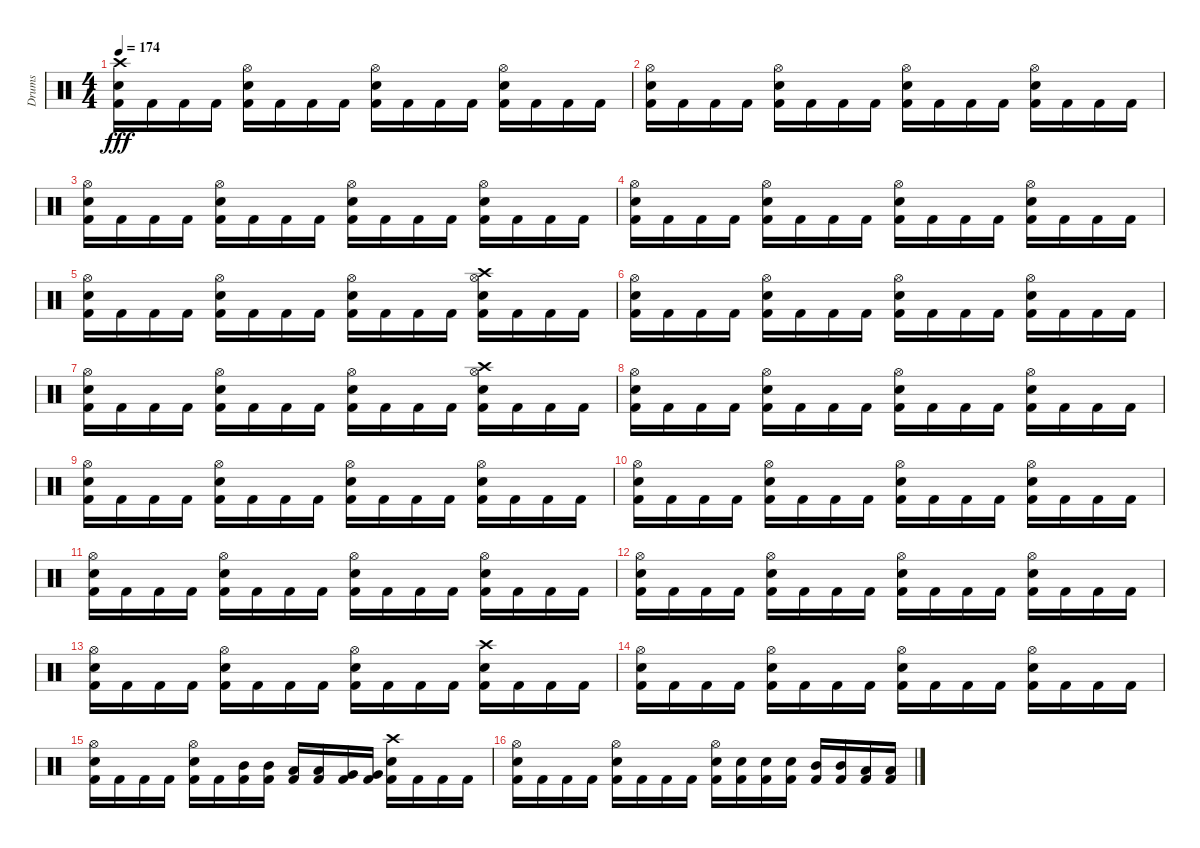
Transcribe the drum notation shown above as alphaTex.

\track ("Drums" "Drums") {instrument percussion}
\staff {score}
\articulation defaults
\ts (4 4)
\tempo 174
\clef neutral
\ks c
("Crash high (hit)" "Snare (hit) 2" "Kick (hit) 2").16{dy fff} "Kick (hit) 2".16 "Kick (hit) 2".16 "Kick (hit) 2".16 ("Hi-Hat (open)" "Snare (hit) 2" "Kick (hit) 2").16 "Kick (hit) 2".16 "Kick (hit) 2".16 "Kick (hit) 2".16 ("Hi-Hat (open)" "Snare (hit) 2" "Kick (hit) 2").16 "Kick (hit) 2".16 "Kick (hit) 2".16 "Kick (hit) 2".16 ("Hi-Hat (open)" "Snare (hit) 2" "Kick (hit) 2").16 "Kick (hit) 2".16 "Kick (hit) 2".16 "Kick (hit) 2".16 |
("Hi-Hat (open)" "Snare (hit) 2" "Kick (hit) 2").16 "Kick (hit) 2".16 "Kick (hit) 2".16 "Kick (hit) 2".16 ("Hi-Hat (open)" "Snare (hit) 2" "Kick (hit) 2").16 "Kick (hit) 2".16 "Kick (hit) 2".16 "Kick (hit) 2".16 ("Hi-Hat (open)" "Snare (hit) 2" "Kick (hit) 2").16 "Kick (hit) 2".16 "Kick (hit) 2".16 "Kick (hit) 2".16 ("Hi-Hat (open)" "Snare (hit) 2" "Kick (hit) 2").16 "Kick (hit) 2".16 "Kick (hit) 2".16 "Kick (hit) 2".16 |
("Hi-Hat (open)" "Snare (hit) 2" "Kick (hit) 2").16 "Kick (hit) 2".16 "Kick (hit) 2".16 "Kick (hit) 2".16 ("Hi-Hat (open)" "Snare (hit) 2" "Kick (hit) 2").16 "Kick (hit) 2".16 "Kick (hit) 2".16 "Kick (hit) 2".16 ("Hi-Hat (open)" "Snare (hit) 2" "Kick (hit) 2").16 "Kick (hit) 2".16 "Kick (hit) 2".16 "Kick (hit) 2".16 ("Hi-Hat (open)" "Snare (hit) 2" "Kick (hit) 2").16 "Kick (hit) 2".16 "Kick (hit) 2".16 "Kick (hit) 2".16 |
("Hi-Hat (open)" "Snare (hit) 2" "Kick (hit) 2").16 "Kick (hit) 2".16 "Kick (hit) 2".16 "Kick (hit) 2".16 ("Hi-Hat (open)" "Snare (hit) 2" "Kick (hit) 2").16 "Kick (hit) 2".16 "Kick (hit) 2".16 "Kick (hit) 2".16 ("Hi-Hat (open)" "Snare (hit) 2" "Kick (hit) 2").16 "Kick (hit) 2".16 "Kick (hit) 2".16 "Kick (hit) 2".16 ("Hi-Hat (open)" "Snare (hit) 2" "Kick (hit) 2").16 "Kick (hit) 2".16 "Kick (hit) 2".16 "Kick (hit) 2".16 |
("Hi-Hat (open)" "Snare (hit) 2" "Kick (hit) 2").16 "Kick (hit) 2".16 "Kick (hit) 2".16 "Kick (hit) 2".16 ("Hi-Hat (open)" "Snare (hit) 2" "Kick (hit) 2").16 "Kick (hit) 2".16 "Kick (hit) 2".16 "Kick (hit) 2".16 ("Hi-Hat (open)" "Snare (hit) 2" "Kick (hit) 2").16 "Kick (hit) 2".16 "Kick (hit) 2".16 "Kick (hit) 2".16 ("Crash high (hit)" "Hi-Hat (open)" "Snare (hit) 2" "Kick (hit) 2").16 "Kick (hit) 2".16 "Kick (hit) 2".16 "Kick (hit) 2".16 |
("Hi-Hat (open)" "Snare (hit) 2" "Kick (hit) 2").16 "Kick (hit) 2".16 "Kick (hit) 2".16 "Kick (hit) 2".16 ("Hi-Hat (open)" "Snare (hit) 2" "Kick (hit) 2").16 "Kick (hit) 2".16 "Kick (hit) 2".16 "Kick (hit) 2".16 ("Hi-Hat (open)" "Snare (hit) 2" "Kick (hit) 2").16 "Kick (hit) 2".16 "Kick (hit) 2".16 "Kick (hit) 2".16 ("Hi-Hat (open)" "Snare (hit) 2" "Kick (hit) 2").16 "Kick (hit) 2".16 "Kick (hit) 2".16 "Kick (hit) 2".16 |
("Hi-Hat (open)" "Snare (hit) 2" "Kick (hit) 2").16 "Kick (hit) 2".16 "Kick (hit) 2".16 "Kick (hit) 2".16 ("Hi-Hat (open)" "Snare (hit) 2" "Kick (hit) 2").16 "Kick (hit) 2".16 "Kick (hit) 2".16 "Kick (hit) 2".16 ("Hi-Hat (open)" "Snare (hit) 2" "Kick (hit) 2").16 "Kick (hit) 2".16 "Kick (hit) 2".16 "Kick (hit) 2".16 ("Crash high (hit)" "Hi-Hat (open)" "Snare (hit) 2" "Kick (hit) 2").16 "Kick (hit) 2".16 "Kick (hit) 2".16 "Kick (hit) 2".16 |
("Hi-Hat (open)" "Snare (hit) 2" "Kick (hit) 2").16 "Kick (hit) 2".16 "Kick (hit) 2".16 "Kick (hit) 2".16 ("Hi-Hat (open)" "Snare (hit) 2" "Kick (hit) 2").16 "Kick (hit) 2".16 "Kick (hit) 2".16 "Kick (hit) 2".16 ("Hi-Hat (open)" "Snare (hit) 2" "Kick (hit) 2").16 "Kick (hit) 2".16 "Kick (hit) 2".16 "Kick (hit) 2".16 ("Hi-Hat (open)" "Snare (hit) 2" "Kick (hit) 2").16 "Kick (hit) 2".16 "Kick (hit) 2".16 "Kick (hit) 2".16 |
("Hi-Hat (open)" "Snare (hit) 2" "Kick (hit) 2").16 "Kick (hit) 2".16 "Kick (hit) 2".16 "Kick (hit) 2".16 ("Hi-Hat (open)" "Snare (hit) 2" "Kick (hit) 2").16 "Kick (hit) 2".16 "Kick (hit) 2".16 "Kick (hit) 2".16 ("Hi-Hat (open)" "Snare (hit) 2" "Kick (hit) 2").16 "Kick (hit) 2".16 "Kick (hit) 2".16 "Kick (hit) 2".16 ("Hi-Hat (open)" "Snare (hit) 2" "Kick (hit) 2").16 "Kick (hit) 2".16 "Kick (hit) 2".16 "Kick (hit) 2".16 |
("Hi-Hat (open)" "Snare (hit) 2" "Kick (hit) 2").16 "Kick (hit) 2".16 "Kick (hit) 2".16 "Kick (hit) 2".16 ("Hi-Hat (open)" "Snare (hit) 2" "Kick (hit) 2").16 "Kick (hit) 2".16 "Kick (hit) 2".16 "Kick (hit) 2".16 ("Hi-Hat (open)" "Snare (hit) 2" "Kick (hit) 2").16 "Kick (hit) 2".16 "Kick (hit) 2".16 "Kick (hit) 2".16 ("Hi-Hat (open)" "Snare (hit) 2" "Kick (hit) 2").16 "Kick (hit) 2".16 "Kick (hit) 2".16 "Kick (hit) 2".16 |
("Hi-Hat (open)" "Snare (hit) 2" "Kick (hit) 2").16 "Kick (hit) 2".16 "Kick (hit) 2".16 "Kick (hit) 2".16 ("Hi-Hat (open)" "Snare (hit) 2" "Kick (hit) 2").16 "Kick (hit) 2".16 "Kick (hit) 2".16 "Kick (hit) 2".16 ("Hi-Hat (open)" "Snare (hit) 2" "Kick (hit) 2").16 "Kick (hit) 2".16 "Kick (hit) 2".16 "Kick (hit) 2".16 ("Hi-Hat (open)" "Snare (hit) 2" "Kick (hit) 2").16 "Kick (hit) 2".16 "Kick (hit) 2".16 "Kick (hit) 2".16 |
("Hi-Hat (open)" "Snare (hit) 2" "Kick (hit) 2").16 "Kick (hit) 2".16 "Kick (hit) 2".16 "Kick (hit) 2".16 ("Hi-Hat (open)" "Snare (hit) 2" "Kick (hit) 2").16 "Kick (hit) 2".16 "Kick (hit) 2".16 "Kick (hit) 2".16 ("Hi-Hat (open)" "Snare (hit) 2" "Kick (hit) 2").16 "Kick (hit) 2".16 "Kick (hit) 2".16 "Kick (hit) 2".16 ("Hi-Hat (open)" "Snare (hit) 2" "Kick (hit) 2").16 "Kick (hit) 2".16 "Kick (hit) 2".16 "Kick (hit) 2".16 |
("Hi-Hat (open)" "Snare (hit) 2" "Kick (hit) 2").16 "Kick (hit) 2".16 "Kick (hit) 2".16 "Kick (hit) 2".16 ("Hi-Hat (open)" "Snare (hit) 2" "Kick (hit) 2").16 "Kick (hit) 2".16 "Kick (hit) 2".16 "Kick (hit) 2".16 ("Hi-Hat (open)" "Snare (hit) 2" "Kick (hit) 2").16 "Kick (hit) 2".16 "Kick (hit) 2".16 "Kick (hit) 2".16 ("Crash high (hit)" "Snare (hit) 2" "Kick (hit) 2").16 "Kick (hit) 2".16 "Kick (hit) 2".16 "Kick (hit) 2".16 |
("Hi-Hat (open)" "Snare (hit) 2" "Kick (hit) 2").16 "Kick (hit) 2".16 "Kick (hit) 2".16 "Kick (hit) 2".16 ("Hi-Hat (open)" "Snare (hit) 2" "Kick (hit) 2").16 "Kick (hit) 2".16 "Kick (hit) 2".16 "Kick (hit) 2".16 ("Hi-Hat (open)" "Snare (hit) 2" "Kick (hit) 2").16 "Kick (hit) 2".16 "Kick (hit) 2".16 "Kick (hit) 2".16 ("Hi-Hat (open)" "Snare (hit) 2" "Kick (hit) 2").16 "Kick (hit) 2".16 "Kick (hit) 2".16 "Kick (hit) 2".16 |
("Hi-Hat (open)" "Snare (hit) 2" "Kick (hit) 2").16 "Kick (hit) 2".16 "Kick (hit) 2".16 "Kick (hit) 2".16 ("Hi-Hat (open)" "Snare (hit) 2" "Kick (hit) 2").16 "Kick (hit) 2".16 ("Mid Tom (hit)" "Kick (hit) 2").16 ("Mid Tom (hit)" "Kick (hit) 2").16 ("Low Tom (hit)" "Kick (hit) 2").16 ("Low Tom (hit)" "Kick (hit) 2").16 ("Very Low Tom (hit)" "Kick (hit) 2").16 ("Very Low Tom (hit)" "Kick (hit) 2").16 ("Crash high (hit)" "Snare (hit) 2" "Kick (hit) 2").16 "Kick (hit) 2".16 "Kick (hit) 2".16 "Kick (hit) 2".16 |
("Hi-Hat (open)" "Snare (hit) 2" "Kick (hit) 2").16 "Kick (hit) 2".16 "Kick (hit) 2".16 "Kick (hit) 2".16 ("Hi-Hat (open)" "Snare (hit) 2" "Kick (hit) 2").16 "Kick (hit) 2".16 "Kick (hit) 2".16 "Kick (hit) 2".16 ("Hi-Hat (open)" "Snare (hit) 2" "Kick (hit) 2").16 ("Snare (hit) 2" "Kick (hit) 2").16 ("Snare (hit) 2" "Kick (hit) 2").16 ("Snare (hit) 2" "Kick (hit) 2").16 ("Mid Tom (hit)" "Kick (hit) 2").16 ("Mid Tom (hit)" "Kick (hit) 2").16 ("Low Tom (hit)" "Kick (hit) 2").16 ("Low Tom (hit)" "Kick (hit) 2").16
